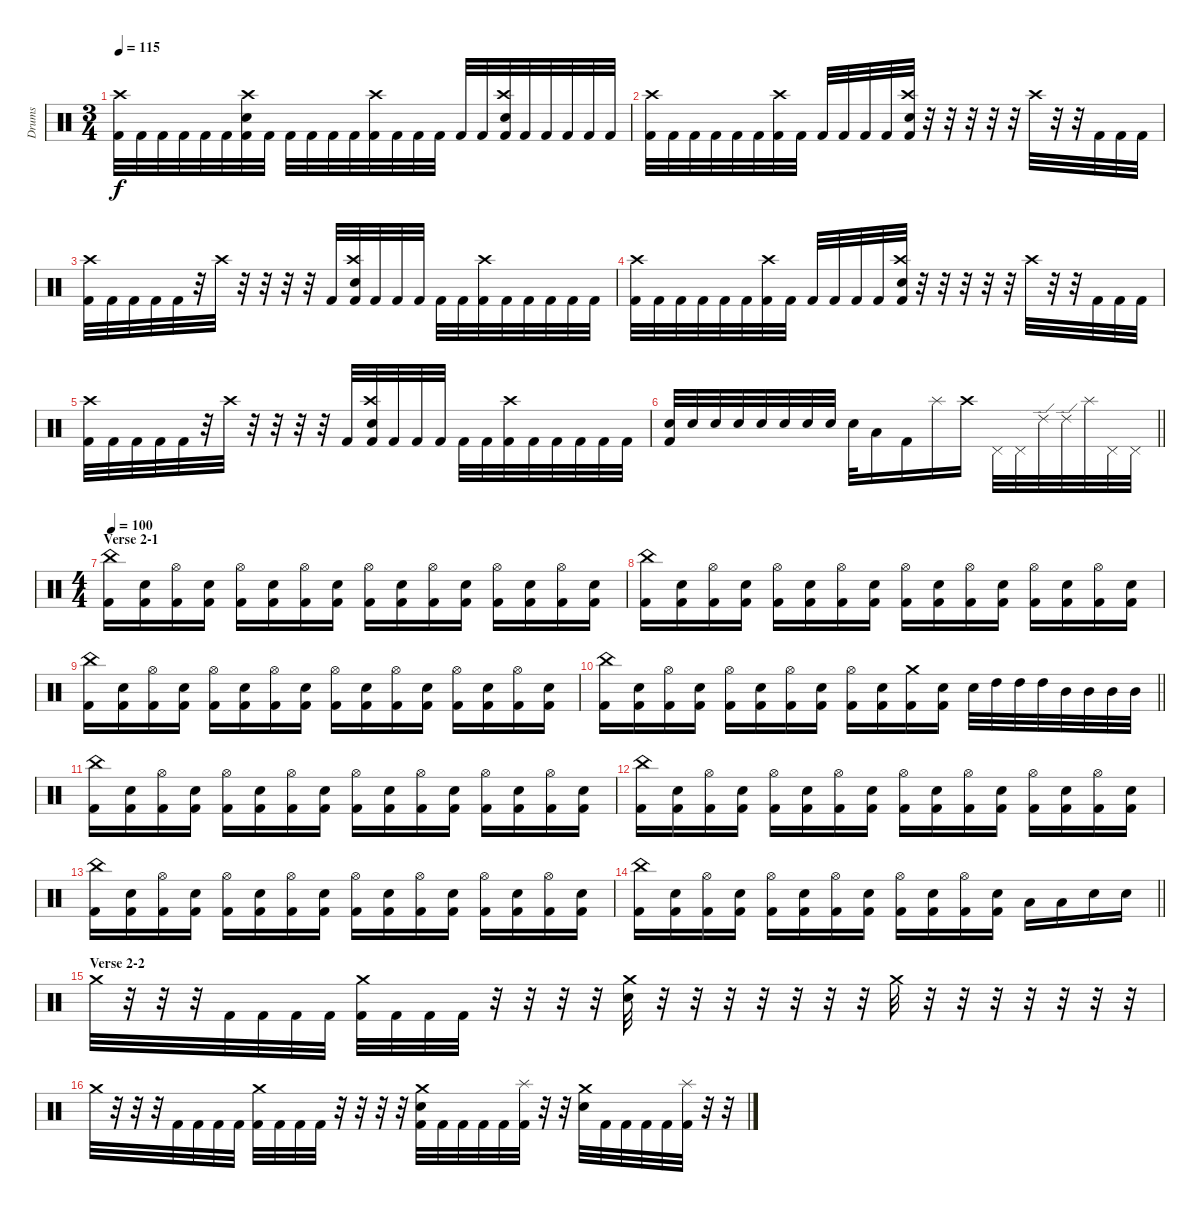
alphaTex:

\track ("Drums" "Drums") {instrument percussion}
\staff {score}
\articulation defaults
\ts (3 4)
\tempo 115
\clef neutral
\ks c
("Kick (hit) 2" "Crash high (hit)").32{dy f} "Kick (hit) 2".32 "Kick (hit) 2".32 "Kick (hit) 2".32 "Kick (hit) 2".32 "Kick (hit) 2".32 ("Kick (hit) 2" "Crash high (hit)" "Electric Snare (hit)").32 "Kick (hit) 2".32 "Kick (hit) 2".32 "Kick (hit) 2".32 "Kick (hit) 2".32 "Kick (hit) 2".32 ("Kick (hit) 2" "Crash high (hit)").32 "Kick (hit) 2".32 "Kick (hit) 2".32 "Kick (hit) 2".32 "Kick (hit) 2".32 "Kick (hit) 2".32 ("Kick (hit) 2" "Electric Snare (hit)" "Crash high (hit)").32 "Kick (hit) 2".32 "Kick (hit) 2".32 "Kick (hit) 2".32 "Kick (hit) 2".32 "Kick (hit) 2".32 |
("Kick (hit) 2" "Crash high (hit)").32 "Kick (hit) 2".32 "Kick (hit) 2".32 "Kick (hit) 2".32 "Kick (hit) 2".32 "Kick (hit) 2".32 ("Kick (hit) 2" "Crash high (hit)").32 "Kick (hit) 2".32 "Kick (hit) 2".32 "Kick (hit) 2".32 "Kick (hit) 2".32 "Kick (hit) 2".32 ("Kick (hit) 2" "Electric Snare (hit)" "Crash high (hit)").32 r.32 r.32 r.32 r.32 r.32 "Crash high (hit)".32 r.32 r.32 "Kick (hit) 2".32 "Kick (hit) 2".32 "Kick (hit) 2".32 |
("Kick (hit) 2" "Crash high (hit)").32 "Kick (hit) 2".32 "Kick (hit) 2".32 "Kick (hit) 2".32 "Kick (hit) 2".32 r.32 "Crash high (hit)".32 r.32 r.32 r.32 r.32 "Kick (hit) 2".32 ("Kick (hit) 2" "Electric Snare (hit)" "Crash high (hit)").32 "Kick (hit) 2".32 "Kick (hit) 2".32 "Kick (hit) 2".32 "Kick (hit) 2".32 "Kick (hit) 2".32 ("Kick (hit) 2" "Crash high (hit)").32 "Kick (hit) 2".32 "Kick (hit) 2".32 "Kick (hit) 2".32 "Kick (hit) 2".32 "Kick (hit) 2".32 |
("Kick (hit) 2" "Crash high (hit)").32 "Kick (hit) 2".32 "Kick (hit) 2".32 "Kick (hit) 2".32 "Kick (hit) 2".32 "Kick (hit) 2".32 ("Kick (hit) 2" "Crash high (hit)").32 "Kick (hit) 2".32 "Kick (hit) 2".32 "Kick (hit) 2".32 "Kick (hit) 2".32 "Kick (hit) 2".32 ("Kick (hit) 2" "Electric Snare (hit)" "Crash high (hit)").32 r.32 r.32 r.32 r.32 r.32 "Crash high (hit)".32 r.32 r.32 "Kick (hit) 2".32 "Kick (hit) 2".32 "Kick (hit) 2".32 |
("Kick (hit) 2" "Crash high (hit)").32 "Kick (hit) 2".32 "Kick (hit) 2".32 "Kick (hit) 2".32 "Kick (hit) 2".32 r.32 "Crash high (hit)".32 r.32 r.32 r.32 r.32 "Kick (hit) 2".32 ("Kick (hit) 2" "Electric Snare (hit)" "Crash high (hit)").32 "Kick (hit) 2".32 "Kick (hit) 2".32 "Kick (hit) 2".32 "Kick (hit) 2".32 "Kick (hit) 2".32 ("Kick (hit) 2" "Crash high (hit)").32 "Kick (hit) 2".32 "Kick (hit) 2".32 "Kick (hit) 2".32 "Kick (hit) 2".32 "Kick (hit) 2".32 |
\barLineRight lightlight
("Kick (hit) 2" "Electric Snare (hit)").32 "Electric Snare (hit)".32 "Electric Snare (hit)".32 "Electric Snare (hit)".32 "Electric Snare (hit)".32 "Electric Snare (hit)".32 "Electric Snare (hit)".32 "Electric Snare (hit)".32 "Electric Snare (hit)".32 "Low Tom (hit)".16 "Kick (hit) 2".16 "Splash (hit)".16 "Crash high (hit)".16 "Pedal Hi-Hat (hit)".32 "Pedal Hi-Hat (hit)".32 "Ride (edge) 2".32 "Ride (edge) 2".32 "Splash (hit)".32 "Pedal Hi-Hat (hit)".32 "Pedal Hi-Hat (hit)".32 |
\ts (4 4)
\section ("" "Verse 2-1")
\tempo 100
("Kick (hit) 2" "China (hit)").16 ("Kick (hit) 2" "Electric Snare (hit)").16 ("Kick (hit) 2" "Hi-Hat (open)").16 ("Kick (hit) 2" "Electric Snare (hit)").16 ("Kick (hit) 2" "Hi-Hat (open)").16 ("Kick (hit) 2" "Electric Snare (hit)").16 ("Kick (hit) 2" "Hi-Hat (open)").16 ("Kick (hit) 2" "Electric Snare (hit)").16 ("Kick (hit) 2" "Hi-Hat (open)").16 ("Kick (hit) 2" "Electric Snare (hit)").16 ("Kick (hit) 2" "Hi-Hat (open)").16 ("Kick (hit) 2" "Electric Snare (hit)").16 ("Kick (hit) 2" "Hi-Hat (open)").16 ("Kick (hit) 2" "Electric Snare (hit)").16 ("Kick (hit) 2" "Hi-Hat (open)").16 ("Kick (hit) 2" "Electric Snare (hit)").16 |
("Kick (hit) 2" "China (hit)").16 ("Kick (hit) 2" "Electric Snare (hit)").16 ("Kick (hit) 2" "Hi-Hat (open)").16 ("Kick (hit) 2" "Electric Snare (hit)").16 ("Kick (hit) 2" "Hi-Hat (open)").16 ("Kick (hit) 2" "Electric Snare (hit)").16 ("Kick (hit) 2" "Hi-Hat (open)").16 ("Kick (hit) 2" "Electric Snare (hit)").16 ("Kick (hit) 2" "Hi-Hat (open)").16 ("Kick (hit) 2" "Electric Snare (hit)").16 ("Kick (hit) 2" "Hi-Hat (open)").16 ("Kick (hit) 2" "Electric Snare (hit)").16 ("Kick (hit) 2" "Hi-Hat (open)").16 ("Kick (hit) 2" "Electric Snare (hit)").16 ("Kick (hit) 2" "Hi-Hat (open)").16 ("Kick (hit) 2" "Electric Snare (hit)").16 |
("Kick (hit) 2" "China (hit)").16 ("Kick (hit) 2" "Electric Snare (hit)").16 ("Kick (hit) 2" "Hi-Hat (open)").16 ("Kick (hit) 2" "Electric Snare (hit)").16 ("Kick (hit) 2" "Hi-Hat (open)").16 ("Kick (hit) 2" "Electric Snare (hit)").16 ("Kick (hit) 2" "Hi-Hat (open)").16 ("Kick (hit) 2" "Electric Snare (hit)").16 ("Kick (hit) 2" "Hi-Hat (open)").16 ("Kick (hit) 2" "Electric Snare (hit)").16 ("Kick (hit) 2" "Hi-Hat (open)").16 ("Kick (hit) 2" "Electric Snare (hit)").16 ("Kick (hit) 2" "Hi-Hat (open)").16 ("Kick (hit) 2" "Electric Snare (hit)").16 ("Kick (hit) 2" "Hi-Hat (open)").16 ("Kick (hit) 2" "Electric Snare (hit)").16 |
\barLineRight lightlight
("Kick (hit) 2" "China (hit)").16 ("Kick (hit) 2" "Electric Snare (hit)").16 ("Kick (hit) 2" "Hi-Hat (open)").16 ("Kick (hit) 2" "Electric Snare (hit)").16 ("Kick (hit) 2" "Hi-Hat (open)").16 ("Kick (hit) 2" "Electric Snare (hit)").16 ("Kick (hit) 2" "Hi-Hat (open)").16 ("Kick (hit) 2" "Electric Snare (hit)").16 ("Kick (hit) 2" "Hi-Hat (open)").16 ("Kick (hit) 2" "Electric Snare (hit)").16 ("Kick (hit) 2" "Crash medium (hit)").16 ("Kick (hit) 2" "Electric Snare (hit)").16 "Electric Snare (hit)".32 "High Tom (hit)".32 "High Tom (hit)".32 "High Tom (hit)".32 "Mid Tom (hit)".32 "Mid Tom (hit)".32 "Mid Tom (hit)".32 "Mid Tom (hit)".32 |
("Kick (hit) 2" "China (hit)").16 ("Kick (hit) 2" "Electric Snare (hit)").16 ("Kick (hit) 2" "Hi-Hat (open)").16 ("Kick (hit) 2" "Electric Snare (hit)").16 ("Kick (hit) 2" "Hi-Hat (open)").16 ("Kick (hit) 2" "Electric Snare (hit)").16 ("Kick (hit) 2" "Hi-Hat (open)").16 ("Kick (hit) 2" "Electric Snare (hit)").16 ("Kick (hit) 2" "Hi-Hat (open)").16 ("Kick (hit) 2" "Electric Snare (hit)").16 ("Kick (hit) 2" "Hi-Hat (open)").16 ("Kick (hit) 2" "Electric Snare (hit)").16 ("Kick (hit) 2" "Hi-Hat (open)").16 ("Kick (hit) 2" "Electric Snare (hit)").16 ("Kick (hit) 2" "Hi-Hat (open)").16 ("Kick (hit) 2" "Electric Snare (hit)").16 |
("Kick (hit) 2" "China (hit)").16 ("Kick (hit) 2" "Electric Snare (hit)").16 ("Kick (hit) 2" "Hi-Hat (open)").16 ("Kick (hit) 2" "Electric Snare (hit)").16 ("Kick (hit) 2" "Hi-Hat (open)").16 ("Kick (hit) 2" "Electric Snare (hit)").16 ("Kick (hit) 2" "Hi-Hat (open)").16 ("Kick (hit) 2" "Electric Snare (hit)").16 ("Kick (hit) 2" "Hi-Hat (open)").16 ("Kick (hit) 2" "Electric Snare (hit)").16 ("Kick (hit) 2" "Hi-Hat (open)").16 ("Kick (hit) 2" "Electric Snare (hit)").16 ("Kick (hit) 2" "Hi-Hat (open)").16 ("Kick (hit) 2" "Electric Snare (hit)").16 ("Kick (hit) 2" "Hi-Hat (open)").16 ("Kick (hit) 2" "Electric Snare (hit)").16 |
("Kick (hit) 2" "China (hit)").16 ("Kick (hit) 2" "Electric Snare (hit)").16 ("Kick (hit) 2" "Hi-Hat (open)").16 ("Kick (hit) 2" "Electric Snare (hit)").16 ("Kick (hit) 2" "Hi-Hat (open)").16 ("Kick (hit) 2" "Electric Snare (hit)").16 ("Kick (hit) 2" "Hi-Hat (open)").16 ("Kick (hit) 2" "Electric Snare (hit)").16 ("Kick (hit) 2" "Hi-Hat (open)").16 ("Kick (hit) 2" "Electric Snare (hit)").16 ("Kick (hit) 2" "Hi-Hat (open)").16 ("Kick (hit) 2" "Electric Snare (hit)").16 ("Kick (hit) 2" "Hi-Hat (open)").16 ("Kick (hit) 2" "Electric Snare (hit)").16 ("Kick (hit) 2" "Hi-Hat (open)").16 ("Kick (hit) 2" "Electric Snare (hit)").16 |
\barLineRight lightlight
("Kick (hit) 2" "China (hit)").16 ("Kick (hit) 2" "Electric Snare (hit)").16 ("Kick (hit) 2" "Hi-Hat (open)").16 ("Kick (hit) 2" "Electric Snare (hit)").16 ("Kick (hit) 2" "Hi-Hat (open)").16 ("Kick (hit) 2" "Electric Snare (hit)").16 ("Kick (hit) 2" "Hi-Hat (open)").16 ("Kick (hit) 2" "Electric Snare (hit)").16 ("Kick (hit) 2" "Hi-Hat (open)").16 ("Kick (hit) 2" "Electric Snare (hit)").16 ("Kick (hit) 2" "Hi-Hat (open)").16 ("Kick (hit) 2" "Electric Snare (hit)").16 "Low Tom (hit)".16 "Low Floor Tom (hit)".16 "Electric Snare (hit)".16 "Electric Snare (hit)".16 |
\section ("" "Verse 2-2")
"Crash medium (hit)".32 r.32 r.32 r.32 "Kick (hit) 2".32 "Kick (hit) 2".32 "Kick (hit) 2".32 "Kick (hit) 2".32 ("Kick (hit) 2" "Crash medium (hit)").32 "Kick (hit) 2".32 "Kick (hit) 2".32 "Kick (hit) 2".32 r.32 r.32 r.32 r.32 ("Electric Snare (hit)" "Crash medium (hit)").32 r.32 r.32 r.32 r.32 r.32 r.32 r.32 "Crash medium (hit)".32 r.32 r.32 r.32 r.32 r.32 r.32 r.32 |
"Crash medium (hit)".32 r.32 r.32 r.32 "Kick (hit) 2".32 "Kick (hit) 2".32 "Kick (hit) 2".32 "Kick (hit) 2".32 ("Kick (hit) 2" "Crash medium (hit)").32 "Kick (hit) 2".32 "Kick (hit) 2".32 "Kick (hit) 2".32 r.32 r.32 r.32 r.32 ("Kick (hit) 2" "Electric Snare (hit)" "Crash medium (hit)").32 "Kick (hit) 2".32 "Kick (hit) 2".32 "Kick (hit) 2".32 "Kick (hit) 2".32 ("Kick (hit) 2" "Splash (hit)").32 r.32 r.32 ("Electric Snare (hit)" "Crash medium (hit)").32 "Kick (hit) 2".32 "Kick (hit) 2".32 "Kick (hit) 2".32 "Kick (hit) 2".32 ("Kick (hit) 2" "Splash (hit)").32 r.32 r.32
